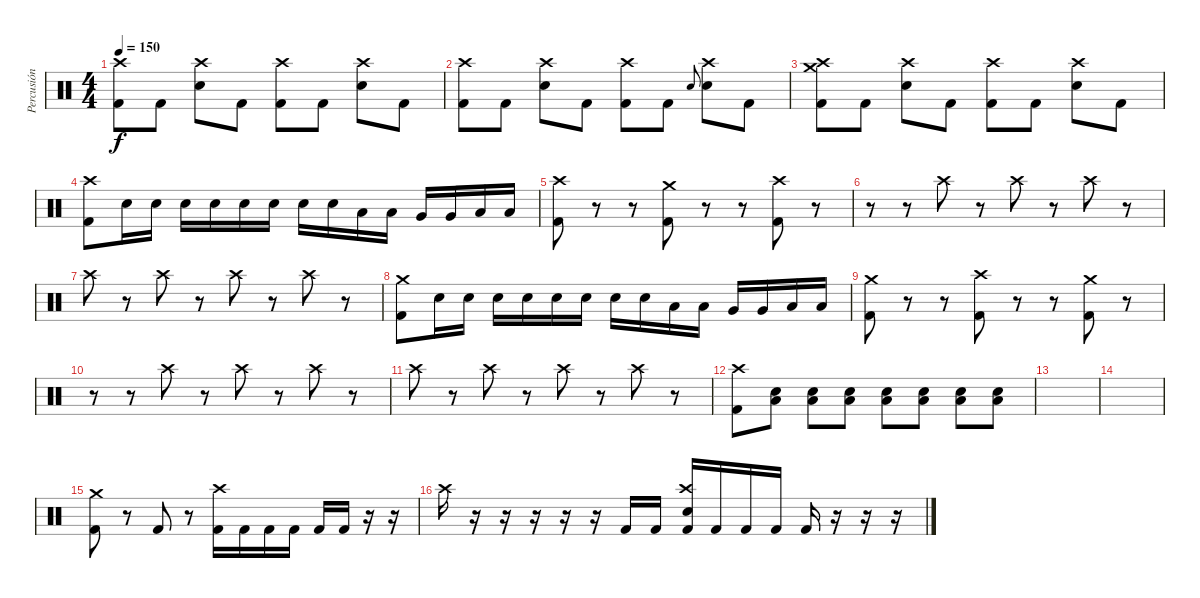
\track ("Percusión" "Percusión") {instrument percussion}
\staff {score}
\articulation defaults
\ts (4 4)
\tempo 150
\clef neutral
\ks c
("Kick (hit) 2" "Crash high (hit)").8{dy f} "Kick (hit) 2".8 ("Electric Snare (hit)" "Crash high (hit)").8 "Kick (hit) 2".8 ("Kick (hit) 2" "Crash high (hit)").8 "Kick (hit) 2".8 ("Electric Snare (hit)" "Crash high (hit)").8 "Kick (hit) 2".8 |
("Kick (hit) 2" "Crash high (hit)").8 "Kick (hit) 2".8 ("Electric Snare (hit)" "Crash high (hit)").8 "Kick (hit) 2".8 ("Kick (hit) 2" "Crash high (hit)").8 "Kick (hit) 2".8 "Electric Snare (hit)".8{gr onbeat} ("Electric Snare (hit)" "Crash high (hit)").8 "Kick (hit) 2".8 |
("Kick (hit) 2" "Crash medium (hit)" "Crash high (hit)").8 "Kick (hit) 2".8 ("Electric Snare (hit)" "Crash high (hit)").8 "Kick (hit) 2".8 ("Kick (hit) 2" "Crash high (hit)").8 "Kick (hit) 2".8 ("Electric Snare (hit)" "Crash high (hit)").8 "Kick (hit) 2".8 |
("Kick (hit) 2" "Crash high (hit)").8 "Electric Snare (hit)".16 "Electric Snare (hit)".16 "Electric Snare (hit)".16 "Electric Snare (hit)".16 "Electric Snare (hit)".16 "Electric Snare (hit)".16 "Electric Snare (hit)".16 "Electric Snare (hit)".16 "Low Tom (hit)".16 "Low Tom (hit)".16 "Very Low Tom (hit)".16 "Very Low Tom (hit)".16 "Low Floor Tom (hit)".16 "Low Floor Tom (hit)".16 |
("Kick (hit) 2" "Crash high (hit)").8 r.8 r.8 ("Kick (hit) 2" "Crash medium (hit)").8 r.8 r.8 ("Kick (hit) 2" "Crash high (hit)").8 r.8 |
r.8 r.8 "Crash high (hit)".8 r.8 "Crash high (hit)".8 r.8 "Crash high (hit)".8 r.8 |
"Crash high (hit)".8 r.8 "Crash high (hit)".8 r.8 "Crash high (hit)".8 r.8 "Crash high (hit)".8 r.8 |
("Kick (hit) 2" "Crash medium (hit)").8 "Electric Snare (hit)".16 "Electric Snare (hit)".16 "Electric Snare (hit)".16 "Electric Snare (hit)".16 "Electric Snare (hit)".16 "Electric Snare (hit)".16 "Electric Snare (hit)".16 "Electric Snare (hit)".16 "Low Tom (hit)".16 "Low Tom (hit)".16 "Very Low Tom (hit)".16 "Very Low Tom (hit)".16 "Low Floor Tom (hit)".16 "Low Floor Tom (hit)".16 |
("Kick (hit) 2" "Crash medium (hit)").8 r.8 r.8 ("Kick (hit) 2" "Crash high (hit)").8 r.8 r.8 ("Kick (hit) 2" "Crash medium (hit)").8 r.8 |
r.8 r.8 "Crash high (hit)".8 r.8 "Crash high (hit)".8 r.8 "Crash high (hit)".8 r.8 |
"Crash high (hit)".8 r.8 "Crash high (hit)".8 r.8 "Crash high (hit)".8 r.8 "Crash high (hit)".8 r.8 |
("Kick (hit) 2" "Crash high (hit)").8 ("Electric Snare (hit)" "Low Floor Tom (hit)").8 ("Electric Snare (hit)" "Low Floor Tom (hit)").8 ("Electric Snare (hit)" "Low Floor Tom (hit)").8 ("Electric Snare (hit)" "Low Floor Tom (hit)").8 ("Electric Snare (hit)" "Low Floor Tom (hit)").8 ("Electric Snare (hit)" "Low Floor Tom (hit)").8 ("Electric Snare (hit)" "Low Floor Tom (hit)").8 |
|
|
("Kick (hit) 2" "Crash medium (hit)").8 r.8 "Kick (hit) 2".8 r.8 ("Kick (hit) 2" "Crash high (hit)").16 "Kick (hit) 2".16 "Kick (hit) 2".16 "Kick (hit) 2".16 "Kick (hit) 2".16 "Kick (hit) 2".16 r.16 r.16 |
"Crash high (hit)".16 r.16 r.16 r.16 r.16 r.16 "Kick (hit) 2".16 "Kick (hit) 2".16 ("Kick (hit) 2" "Electric Snare (hit)" "Crash high (hit)").16 "Kick (hit) 2".16 "Kick (hit) 2".16 "Kick (hit) 2".16 "Kick (hit) 2".16 r.16 r.16 r.16
